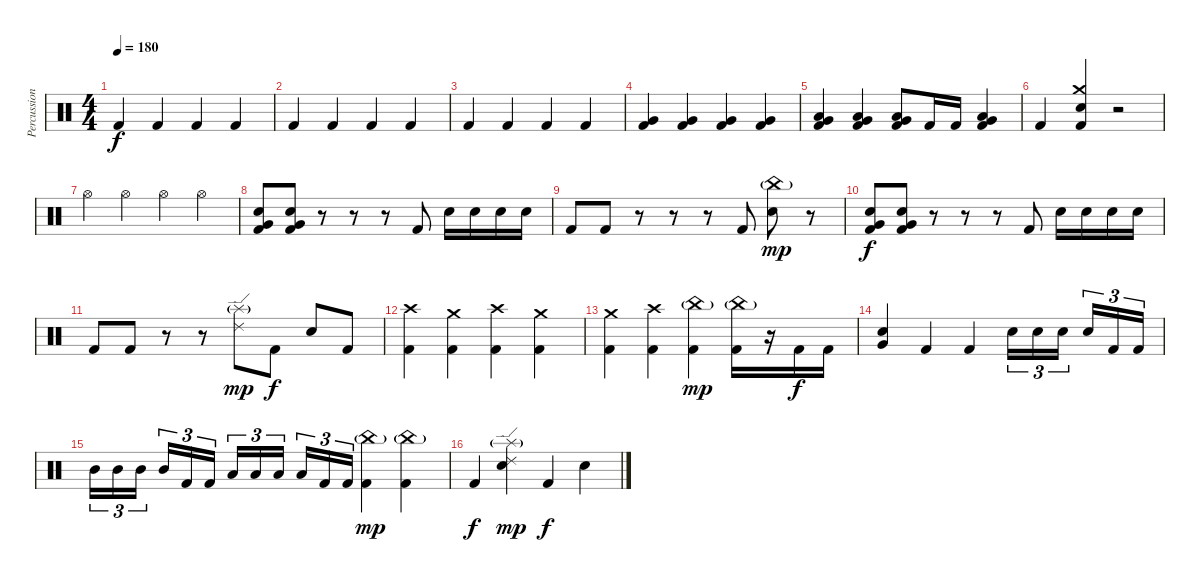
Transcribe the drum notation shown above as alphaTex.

\track ("Percussion" "Percussion") {instrument percussion}
\staff {score}
\articulation defaults
\ts (4 4)
\tempo 180
\clef neutral
\ks c "Kick (hit) 2".4{dy f} "Kick (hit) 2".4 "Kick (hit) 2".4 "Kick (hit) 2".4
|
"Kick (hit) 2".4 "Kick (hit) 2".4 "Kick (hit) 2".4 "Kick (hit) 2".4 |
"Kick (hit) 2".4 "Kick (hit) 2".4 "Kick (hit) 2".4 "Kick (hit) 2".4 |
("Very Low Tom (hit)" "Kick (hit) 2").4 ("Very Low Tom (hit)" "Kick (hit) 2").4 ("Very Low Tom (hit)" "Kick (hit) 2").4 ("Very Low Tom (hit)" "Kick (hit) 2").4 |
("Low Floor Tom (hit)" "Very Low Tom (hit)" "Kick (hit) 2").4 ("Low Floor Tom (hit)" "Very Low Tom (hit)" "Kick (hit) 2").4 ("Low Floor Tom (hit)" "Very Low Tom (hit)" "Kick (hit) 2").8 "Kick (hit) 2".16 "Kick (hit) 2".16 ("Low Floor Tom (hit)" "Very Low Tom (hit)" "Kick (hit) 2").4 |
"Kick (hit) 2".4 ("Crash medium (hit)" "Electric Snare (hit)" "Kick (hit) 2").4 r.2 |
"Hi-Hat (open)".4 "Hi-Hat (open)".4 "Hi-Hat (open)".4 "Hi-Hat (open)".4 |
("Very Low Tom (hit)" "Electric Snare (hit)" "Kick (hit) 2").8 ("Very Low Tom (hit)" "Electric Snare (hit)" "Kick (hit) 2").8 r.8 r.8 r.8 "Kick (hit) 2".8 "Electric Snare (hit)".16 "Electric Snare (hit)".16 "Electric Snare (hit)".16 "Electric Snare (hit)".16 |
"Kick (hit) 2".8 "Kick (hit) 2".8 r.8 r.8 r.8 "Kick (hit) 2".8 ("China (hit)"{g} "Electric Snare (hit)").8{dy mp} r.8 |
("Very Low Tom (hit)" "Electric Snare (hit)" "Kick (hit) 2").8{dy f} ("Very Low Tom (hit)" "Electric Snare (hit)" "Kick (hit) 2").8 r.8 r.8 r.8 "Kick (hit) 2".8 "Electric Snare (hit)".16 "Electric Snare (hit)".16 "Electric Snare (hit)".16 "Electric Snare (hit)".16 |
"Kick (hit) 2".8 "Kick (hit) 2".8 r.8 r.8 ("Splash (hit)"{g} "Ride (edge) 2").8{dy mp} "Kick (hit) 2".8{dy f} "Electric Snare (hit)".8 "Kick (hit) 2".8 |
("Crash high (hit)" "Kick (hit) 2").4 ("Crash medium (hit)" "Kick (hit) 2").4 ("Crash high (hit)" "Kick (hit) 2").4 ("Crash medium (hit)" "Kick (hit) 2").4 |
("Crash medium (hit)" "Kick (hit) 2").4 ("Crash high (hit)" "Kick (hit) 2").4 ("China (hit)"{g} "Kick (hit) 2").4{dy mp} ("China (hit)"{g} "Kick (hit) 2").16 r.16 "Kick (hit) 2".16{dy f} "Kick (hit) 2".16 |
("Very Low Tom (hit)" "Electric Snare (hit)").4 "Kick (hit) 2".4 "Kick (hit) 2".4 "Electric Snare (hit)".16{tu (3 2)} "Electric Snare (hit)".16{tu (3 2)} "Electric Snare (hit)".16{tu (3 2) beam splitsecondary} "Electric Snare (hit)".16{tu (3 2)} "Kick (hit) 2".16{tu (3 2)} "Kick (hit) 2".16{tu (3 2)} |
"Mid Tom (hit)".16{tu (3 2)} "Mid Tom (hit)".16{tu (3 2)} "Mid Tom (hit)".16{tu (3 2) beam splitsecondary} "Mid Tom (hit)".16{tu (3 2)} "Kick (hit) 2".16{tu (3 2)} "Kick (hit) 2".16{tu (3 2)} "Low Tom (hit)".16{tu (3 2)} "Low Tom (hit)".16{tu (3 2)} "Low Tom (hit)".16{tu (3 2) beam splitsecondary} "Low Tom (hit)".16{tu (3 2)} "Kick (hit) 2".16{tu (3 2)} "Kick (hit) 2".16{tu (3 2)} ("China (hit)"{g} "Kick (hit) 2").4{dy mp} ("China (hit)"{g} "Kick (hit) 2").4 |
"Kick (hit) 2".4{dy f} ("Ride (edge) 2" "Splash (hit)"{g} "Electric Snare (hit)").4{dy mp} "Kick (hit) 2".4{dy f} "Electric Snare (hit)".4
